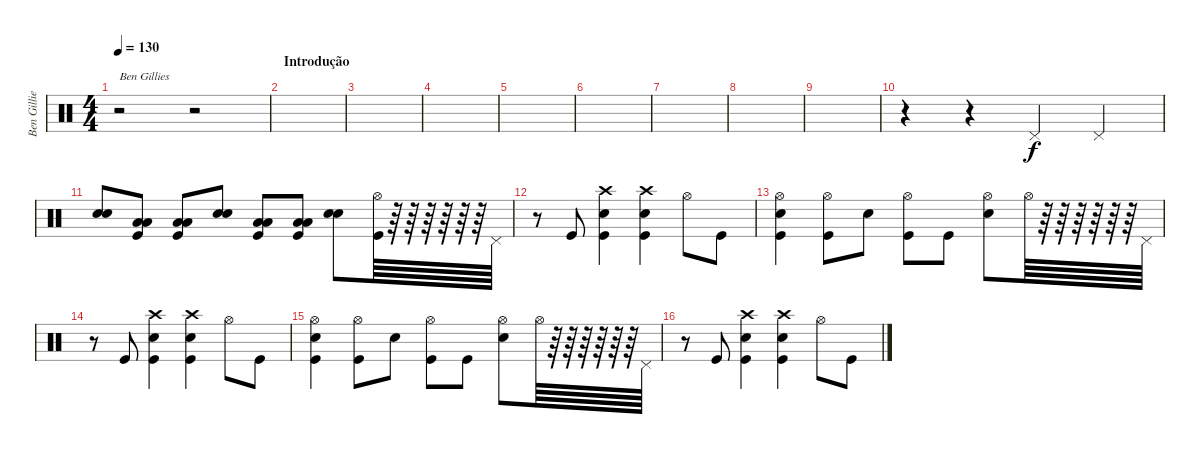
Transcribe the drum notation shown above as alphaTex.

\track ("Ben Gillies" "Ben Gillie") {instrument percussion}
\staff {score}
\articulation defaults
\ts (4 4)
\tempo 130
\clef neutral
\ks c
r.2{txt "Ben Gillies" dy f} r.2 |
\section ("" "Introdução")
|
|
|
|
|
|
|
|
r.4 r.4 "Pedal Hi-Hat (hit)".4 "Pedal Hi-Hat (hit)".4 |
("Snare (hit) 2" "Snare (hit) 2").8{bu 60} ("Kick (hit)" "Low Floor Tom (hit)" "Low Floor Tom (hit)").8 ("Kick (hit)" "Low Floor Tom (hit)" "Low Floor Tom (hit)").8 ("Snare (hit) 2" "Snare (hit) 2").8{bu 60} ("Kick (hit)" "Low Floor Tom (hit)" "Low Floor Tom (hit)").8 ("Kick (hit)" "Low Floor Tom (hit)" "Low Floor Tom (hit)").8 ("Snare (hit) 2" "Snare (hit) 2").8{bu 60} ("Kick (hit)" "Hi-Hat (open)").64 r.64 r.64 r.64 r.64 r.64 r.64 "Pedal Hi-Hat (hit)".64 |
r.8 "Kick (hit)".8 ("Kick (hit)" "Snare (hit) 2" "Crash high (hit)").4 ("Kick (hit)" "Snare (hit) 2" "Crash high (hit)").4 "Hi-Hat (open)".8 "Kick (hit)".8 |
("Kick (hit)" "Snare (hit) 2" "Hi-Hat (open)").4 ("Kick (hit)" "Hi-Hat (open)").8 "Snare (hit) 2".8 ("Kick (hit)" "Hi-Hat (open)").8 "Kick (hit)".8 ("Snare (hit) 2" "Hi-Hat (open)").8 "Hi-Hat (open)".64 r.64 r.64 r.64 r.64 r.64 r.64 "Pedal Hi-Hat (hit)".64 |
r.8 "Kick (hit)".8 ("Kick (hit)" "Snare (hit) 2" "Crash high (hit)").4 ("Kick (hit)" "Snare (hit) 2" "Crash high (hit)").4 "Hi-Hat (open)".8 "Kick (hit)".8 |
("Kick (hit)" "Snare (hit) 2" "Hi-Hat (open)").4 ("Kick (hit)" "Hi-Hat (open)").8 "Snare (hit) 2".8 ("Kick (hit)" "Hi-Hat (open)").8 "Kick (hit)".8 ("Snare (hit) 2" "Hi-Hat (open)").8 "Hi-Hat (open)".64 r.64 r.64 r.64 r.64 r.64 r.64 "Pedal Hi-Hat (hit)".64 |
r.8 "Kick (hit)".8 ("Kick (hit)" "Snare (hit) 2" "Crash high (hit)").4 ("Kick (hit)" "Snare (hit) 2" "Crash high (hit)").4 "Hi-Hat (open)".8 "Kick (hit)".8
